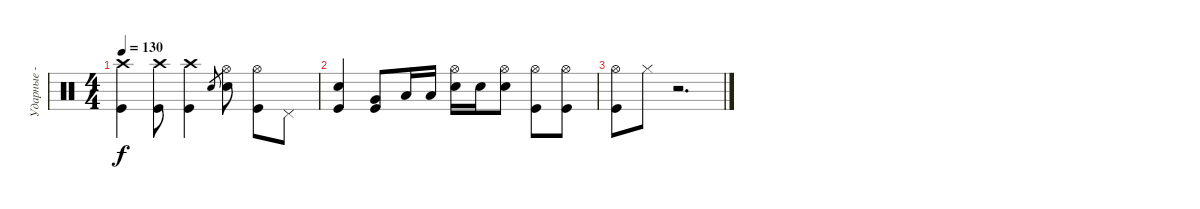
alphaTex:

\track ("Ударные - Джек Уайт" "Ударные - ") {instrument percussion}
\staff {score}
\articulation defaults
\ts (4 4)
\tempo 130
\clef neutral
\ks c
("Crash high (hit)" "Kick (hit)").4{dy f} ("Crash high (hit)" "Kick (hit)").8 ("Crash high (hit)" "Kick (hit)").4 "Electric Snare (hit)".8{gr} ("Hi-Hat (open)" "Electric Snare (hit)").8 ("Hi-Hat (open)" "Kick (hit)").8 "Pedal Hi-Hat (hit)".8 |
("Snare (hit) 2" "Kick (hit)").4 ("Very Low Tom (hit)" "Kick (hit)").8 "Low Tom (hit)".16 "Low Tom (hit)".16 ("Hi-Hat (open)" "Snare (hit) 2").16 "Snare (hit) 2".16 ("Hi-Hat (open)" "Snare (hit) 2").8 ("Hi-Hat (open)" "Kick (hit)").8 ("Hi-Hat (open)" "Kick (hit)").8 |
("Hi-Hat (open)" "Kick (hit)").8 "Hi-Hat (closed)".8 r.2{d}
